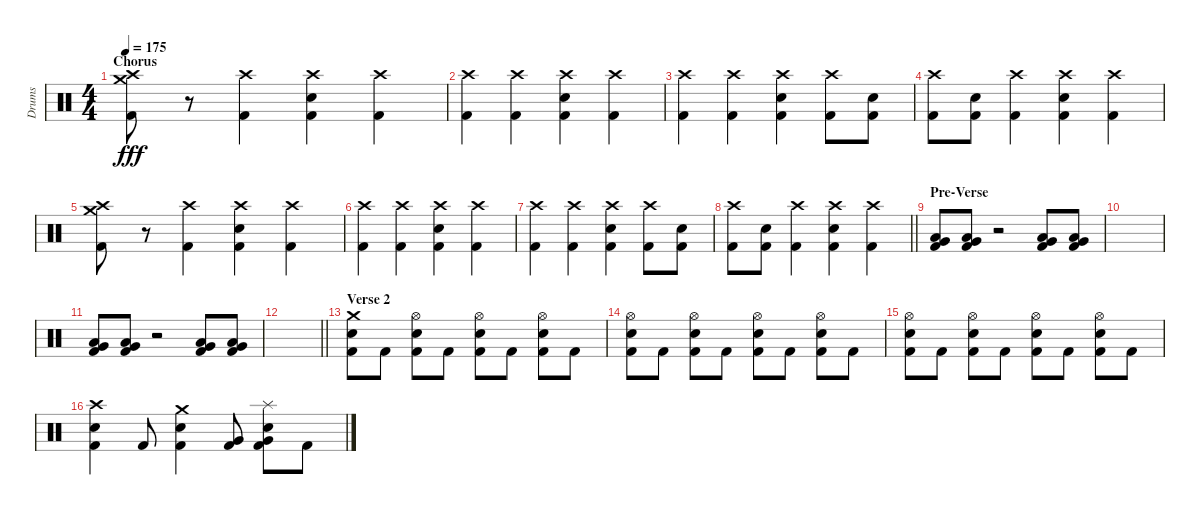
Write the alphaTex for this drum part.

\track ("Drums" "Drums") {instrument percussion}
\staff {score}
\articulation defaults
\ts (4 4)
\section ("" "Chorus")
\tempo 175
\clef neutral
\ks c
("Crash high (hit)" "Crash medium (hit)" "Kick (hit) 2").8{dy fff} r.8 ("Crash high (hit)" "Kick (hit) 2").4 ("Crash high (hit)" "Electric Snare (hit)" "Kick (hit) 2").4 ("Crash high (hit)" "Kick (hit) 2").4 |
("Crash high (hit)" "Kick (hit) 2").4 ("Crash high (hit)" "Kick (hit) 2").4 ("Crash high (hit)" "Electric Snare (hit)" "Kick (hit) 2").4 ("Crash high (hit)" "Kick (hit) 2").4 |
("Crash high (hit)" "Kick (hit) 2").4 ("Crash high (hit)" "Kick (hit) 2").4 ("Crash high (hit)" "Electric Snare (hit)" "Kick (hit) 2").4 ("Crash high (hit)" "Kick (hit) 2").8 ("Electric Snare (hit)" "Kick (hit) 2").8 |
("Crash high (hit)" "Kick (hit) 2").8 ("Electric Snare (hit)" "Kick (hit) 2").8 ("Crash high (hit)" "Kick (hit) 2").4 ("Crash high (hit)" "Electric Snare (hit)" "Kick (hit) 2").4 ("Crash high (hit)" "Kick (hit) 2").4 |
("Crash high (hit)" "Crash medium (hit)" "Kick (hit) 2").8 r.8 ("Crash high (hit)" "Kick (hit) 2").4 ("Crash high (hit)" "Electric Snare (hit)" "Kick (hit) 2").4 ("Crash high (hit)" "Kick (hit) 2").4 |
("Crash high (hit)" "Kick (hit) 2").4 ("Crash high (hit)" "Kick (hit) 2").4 ("Crash high (hit)" "Electric Snare (hit)" "Kick (hit) 2").4 ("Crash high (hit)" "Kick (hit) 2").4 |
("Crash high (hit)" "Kick (hit) 2").4 ("Crash high (hit)" "Kick (hit) 2").4 ("Crash high (hit)" "Electric Snare (hit)" "Kick (hit) 2").4 ("Crash high (hit)" "Kick (hit) 2").8 ("Electric Snare (hit)" "Kick (hit) 2").8 |
\barLineRight lightlight
("Crash high (hit)" "Kick (hit) 2").8 ("Electric Snare (hit)" "Kick (hit) 2").8 ("Crash high (hit)" "Kick (hit) 2").4 ("Crash high (hit)" "Electric Snare (hit)" "Kick (hit) 2").4 ("Crash high (hit)" "Kick (hit) 2").4 |
\section ("" "Pre-Verse")
("Low Floor Tom (hit)" "Very Low Tom (hit)" "Kick (hit) 2").8 ("Low Floor Tom (hit)" "Very Low Tom (hit)" "Kick (hit) 2").8 r.2 ("Low Floor Tom (hit)" "Very Low Tom (hit)" "Kick (hit) 2").8 ("Low Floor Tom (hit)" "Very Low Tom (hit)" "Kick (hit) 2").8 |
|
("Low Floor Tom (hit)" "Very Low Tom (hit)" "Kick (hit) 2").8 ("Low Floor Tom (hit)" "Very Low Tom (hit)" "Kick (hit) 2").8 r.2 ("Low Floor Tom (hit)" "Very Low Tom (hit)" "Kick (hit) 2").8 ("Low Floor Tom (hit)" "Very Low Tom (hit)" "Kick (hit) 2").8 |
\barLineRight lightlight
|
\section ("" "Verse 2")
("Crash medium (hit)" "Electric Snare (hit)" "Kick (hit) 2").8 "Kick (hit) 2".8 ("Hi-Hat (open)" "Electric Snare (hit)" "Kick (hit) 2").8 "Kick (hit) 2".8 ("Hi-Hat (open)" "Electric Snare (hit)" "Kick (hit) 2").8 "Kick (hit) 2".8 ("Hi-Hat (open)" "Electric Snare (hit)" "Kick (hit) 2").8 "Kick (hit) 2".8 |
("Hi-Hat (open)" "Electric Snare (hit)" "Kick (hit) 2").8 "Kick (hit) 2".8 ("Hi-Hat (open)" "Electric Snare (hit)" "Kick (hit) 2").8 "Kick (hit) 2".8 ("Hi-Hat (open)" "Electric Snare (hit)" "Kick (hit) 2").8 "Kick (hit) 2".8 ("Hi-Hat (open)" "Electric Snare (hit)" "Kick (hit) 2").8 "Kick (hit) 2".8 |
("Hi-Hat (open)" "Electric Snare (hit)" "Kick (hit) 2").8 "Kick (hit) 2".8 ("Hi-Hat (open)" "Electric Snare (hit)" "Kick (hit) 2").8 "Kick (hit) 2".8 ("Hi-Hat (open)" "Electric Snare (hit)" "Kick (hit) 2").8 "Kick (hit) 2".8 ("Hi-Hat (open)" "Electric Snare (hit)" "Kick (hit) 2").8 "Kick (hit) 2".8 |
("Crash high (hit)" "Electric Snare (hit)" "Kick (hit) 2").4 "Kick (hit) 2".8 ("Crash medium (hit)" "Electric Snare (hit)" "Kick (hit) 2").4 ("Very Low Tom (hit)" "Kick (hit) 2").8 ("Splash (hit)" "Electric Snare (hit)" "Very Low Tom (hit)" "Kick (hit) 2").8 "Kick (hit) 2".8
